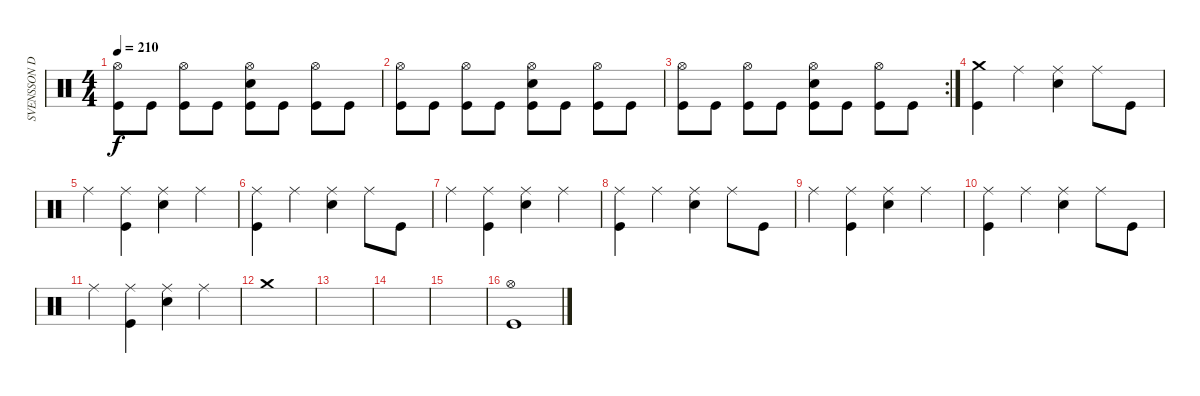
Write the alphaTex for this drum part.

\track ("SVENSSON DRUMS" "SVENSSON D") {instrument percussion}
\staff {score}
\articulation defaults
\ts (4 4)
\tempo 210
\clef neutral
\ks c
("Hi-Hat (open)" "Kick (hit)").8{dy f} "Kick (hit)".8 ("Hi-Hat (open)" "Kick (hit)"{x}).8 "Kick (hit)".8 ("Hi-Hat (open)" "Electric Snare (hit)" "Kick (hit)").8 "Kick (hit)".8 ("Hi-Hat (open)" "Kick (hit)"{x}).8 "Kick (hit)".8 |
("Hi-Hat (open)" "Kick (hit)").8 "Kick (hit)".8 ("Hi-Hat (open)" "Kick (hit)"{x}).8 "Kick (hit)".8 ("Hi-Hat (open)" "Electric Snare (hit)" "Kick (hit)").8 "Kick (hit)".8 ("Hi-Hat (open)" "Kick (hit)"{x}).8 "Kick (hit)".8 |
\rc 2
("Hi-Hat (open)" "Kick (hit)").8 "Kick (hit)".8 ("Hi-Hat (open)" "Kick (hit)"{x}).8 "Kick (hit)".8 ("Hi-Hat (open)" "Electric Snare (hit)" "Kick (hit)").8 "Kick (hit)".8 ("Hi-Hat (open)" "Kick (hit)"{x}).8 "Kick (hit)".8 |
("Crash medium (hit)" "Kick (hit)").4 "Ride (middle)".4 ("Ride (middle)" "Electric Snare (hit)").4 "Ride (middle)".8 "Kick (hit)".8 |
"Ride (middle)".4 ("Ride (middle)" "Kick (hit)").4 ("Ride (middle)" "Electric Snare (hit)").4 "Ride (middle)".4 |
("Ride (middle)" "Kick (hit)").4 "Ride (middle)".4 ("Ride (middle)" "Electric Snare (hit)").4 "Ride (middle)".8 "Kick (hit)".8 |
"Ride (middle)".4 ("Ride (middle)" "Kick (hit)").4 ("Ride (middle)" "Electric Snare (hit)").4 "Ride (middle)".4 |
("Ride (middle)" "Kick (hit)").4 "Ride (middle)".4 ("Ride (middle)" "Electric Snare (hit)").4 "Ride (middle)".8 "Kick (hit)".8 |
"Ride (middle)".4 ("Ride (middle)" "Kick (hit)").4 ("Ride (middle)" "Electric Snare (hit)").4 "Ride (middle)".4 |
("Ride (middle)" "Kick (hit)").4 "Ride (middle)".4 ("Ride (middle)" "Electric Snare (hit)").4 "Ride (middle)".8 "Kick (hit)".8 |
"Ride (middle)".4 ("Ride (middle)" "Kick (hit)").4 ("Ride (middle)" "Electric Snare (hit)").4 "Ride (middle)".4 |
"Crash medium (hit)".1 |
|
|
|
("Hi-Hat (open)" "Kick (hit)").1
